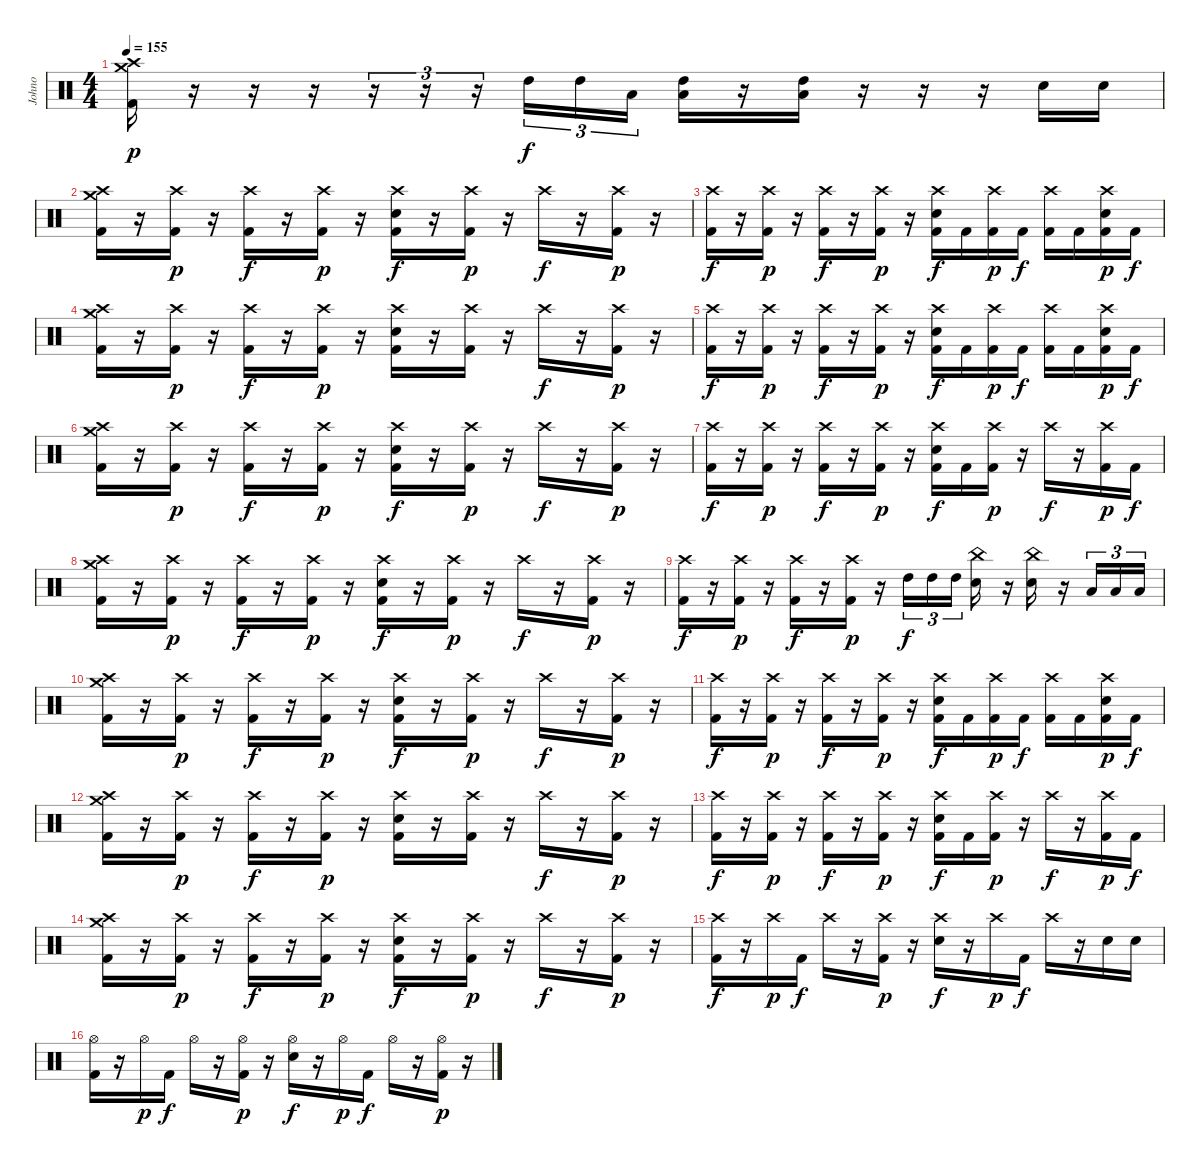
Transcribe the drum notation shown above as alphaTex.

\track ("Johno" "Johno") {instrument percussion}
\staff {score}
\articulation defaults
\ts (4 4)
\tempo 155
\clef neutral
\ks c
("Crash medium (hit)" "Crash high (hit)" "Kick (hit) 2").16{dy p} r.16 r.16 r.16 r.16{tu (3 2)} r.16{tu (3 2)} r.16{tu (3 2)} "High Tom (hit)".16{tu (3 2) dy f} "High Tom (hit)".16{tu (3 2)} "Low Floor Tom (hit)".16{tu (3 2)} ("Low Floor Tom (hit)" "High Tom (hit)").16 r.16 ("Low Floor Tom (hit)" "High Tom (hit)").16 r.16 r.16 r.16 "Electric Snare (hit)".16 "Electric Snare (hit)".16 |
("Crash medium (hit)" "Crash high (hit)" "Kick (hit) 2").16 r.16 ("Crash high (hit)" "Kick (hit) 2").16{dy p} r.16 ("Crash high (hit)" "Kick (hit) 2").16{dy f} r.16 ("Crash high (hit)" "Kick (hit) 2").16{dy p} r.16 ("Crash high (hit)" "Electric Snare (hit)" "Kick (hit) 2").16{dy f} r.16 ("Crash high (hit)" "Kick (hit) 2").16{dy p} r.16 "Crash high (hit)".16{dy f} r.16 ("Crash high (hit)" "Kick (hit) 2").16{dy p} r.16 |
("Crash high (hit)" "Kick (hit) 2").16{dy f} r.16 ("Crash high (hit)" "Kick (hit) 2").16{dy p} r.16 ("Crash high (hit)" "Kick (hit) 2").16{dy f} r.16 ("Crash high (hit)" "Kick (hit) 2").16{dy p} r.16 ("Crash high (hit)" "Electric Snare (hit)" "Kick (hit) 2").16{dy f} "Kick (hit) 2".16 ("Crash high (hit)" "Kick (hit) 2").16{dy p} "Kick (hit) 2".16{dy f} ("Crash high (hit)" "Kick (hit) 2").16 "Kick (hit) 2".16 ("Crash high (hit)" "Electric Snare (hit)" "Kick (hit) 2").16{dy p} "Kick (hit) 2".16{dy f} |
("Crash medium (hit)" "Crash high (hit)" "Kick (hit) 2").16 r.16 ("Crash high (hit)" "Kick (hit) 2").16{dy p} r.16 ("Crash high (hit)" "Kick (hit) 2").16{dy f} r.16 ("Crash high (hit)" "Kick (hit) 2").16{dy p} r.16 ("Crash high (hit)" "Electric Snare (hit)" "Kick (hit) 2").16 r.16 ("Crash high (hit)" "Kick (hit) 2").16 r.16 "Crash high (hit)".16{dy f} r.16 ("Crash high (hit)" "Kick (hit) 2").16{dy p} r.16 |
("Crash high (hit)" "Kick (hit) 2").16{dy f} r.16 ("Crash high (hit)" "Kick (hit) 2").16{dy p} r.16 ("Crash high (hit)" "Kick (hit) 2").16{dy f} r.16 ("Crash high (hit)" "Kick (hit) 2").16{dy p} r.16 ("Crash high (hit)" "Electric Snare (hit)" "Kick (hit) 2").16{dy f} "Kick (hit) 2".16 ("Crash high (hit)" "Kick (hit) 2").16{dy p} "Kick (hit) 2".16{dy f} ("Crash high (hit)" "Kick (hit) 2").16 "Kick (hit) 2".16 ("Crash high (hit)" "Electric Snare (hit)" "Kick (hit) 2").16{dy p} "Kick (hit) 2".16{dy f} |
("Crash medium (hit)" "Crash high (hit)" "Kick (hit) 2").16 r.16 ("Crash high (hit)" "Kick (hit) 2").16{dy p} r.16 ("Crash high (hit)" "Kick (hit) 2").16{dy f} r.16 ("Crash high (hit)" "Kick (hit) 2").16{dy p} r.16 ("Crash high (hit)" "Electric Snare (hit)" "Kick (hit) 2").16{dy f} r.16 ("Crash high (hit)" "Kick (hit) 2").16{dy p} r.16 "Crash high (hit)".16{dy f} r.16 ("Crash high (hit)" "Kick (hit) 2").16{dy p} r.16 |
("Crash high (hit)" "Kick (hit) 2").16{dy f} r.16 ("Crash high (hit)" "Kick (hit) 2").16{dy p} r.16 ("Crash high (hit)" "Kick (hit) 2").16{dy f} r.16 ("Crash high (hit)" "Kick (hit) 2").16{dy p} r.16 ("Crash high (hit)" "Electric Snare (hit)" "Kick (hit) 2").16{dy f} "Kick (hit) 2".16 ("Crash high (hit)" "Kick (hit) 2").16{dy p} r.16 "Crash high (hit)".16{dy f} r.16 ("Crash high (hit)" "Kick (hit) 2").16{dy p} "Kick (hit) 2".16{dy f} |
("Crash medium (hit)" "Crash high (hit)" "Kick (hit) 2").16 r.16 ("Crash high (hit)" "Kick (hit) 2").16{dy p} r.16 ("Crash high (hit)" "Kick (hit) 2").16{dy f} r.16 ("Crash high (hit)" "Kick (hit) 2").16{dy p} r.16 ("Crash high (hit)" "Electric Snare (hit)" "Kick (hit) 2").16{dy f} r.16 ("Crash high (hit)" "Kick (hit) 2").16{dy p} r.16 "Crash high (hit)".16{dy f} r.16 ("Crash high (hit)" "Kick (hit) 2").16{dy p} r.16 |
("Crash high (hit)" "Kick (hit) 2").16{dy f} r.16 ("Crash high (hit)" "Kick (hit) 2").16{dy p} r.16 ("Crash high (hit)" "Kick (hit) 2").16{dy f} r.16 ("Crash high (hit)" "Kick (hit) 2").16{dy p} r.16 "High Tom (hit)".16{tu (3 2) dy f} "High Tom (hit)".16{tu (3 2)} "High Tom (hit)".16{tu (3 2) beam splitsecondary} ("China (hit)" "Electric Snare (hit)").16 r.16 ("China (hit)" "Electric Snare (hit)").16 r.16 "Low Floor Tom (hit)".16{tu (3 2)} "Low Floor Tom (hit)".16{tu (3 2)} "Low Floor Tom (hit)".16{tu (3 2)} |
("Crash medium (hit)" "Crash high (hit)" "Kick (hit) 2").16 r.16 ("Crash high (hit)" "Kick (hit) 2").16{dy p} r.16 ("Crash high (hit)" "Kick (hit) 2").16{dy f} r.16 ("Crash high (hit)" "Kick (hit) 2").16{dy p} r.16 ("Crash high (hit)" "Electric Snare (hit)" "Kick (hit) 2").16{dy f} r.16 ("Crash high (hit)" "Kick (hit) 2").16{dy p} r.16 "Crash high (hit)".16{dy f} r.16 ("Crash high (hit)" "Kick (hit) 2").16{dy p} r.16 |
("Crash high (hit)" "Kick (hit) 2").16{dy f} r.16 ("Crash high (hit)" "Kick (hit) 2").16{dy p} r.16 ("Crash high (hit)" "Kick (hit) 2").16{dy f} r.16 ("Crash high (hit)" "Kick (hit) 2").16{dy p} r.16 ("Crash high (hit)" "Electric Snare (hit)" "Kick (hit) 2").16{dy f} "Kick (hit) 2".16 ("Crash high (hit)" "Kick (hit) 2").16{dy p} "Kick (hit) 2".16{dy f} ("Crash high (hit)" "Kick (hit) 2").16 "Kick (hit) 2".16 ("Crash high (hit)" "Electric Snare (hit)" "Kick (hit) 2").16{dy p} "Kick (hit) 2".16{dy f} |
("Crash medium (hit)" "Crash high (hit)" "Kick (hit) 2").16 r.16 ("Crash high (hit)" "Kick (hit) 2").16{dy p} r.16 ("Crash high (hit)" "Kick (hit) 2").16{dy f} r.16 ("Crash high (hit)" "Kick (hit) 2").16{dy p} r.16 ("Crash high (hit)" "Electric Snare (hit)" "Kick (hit) 2").16 r.16 ("Crash high (hit)" "Kick (hit) 2").16 r.16 "Crash high (hit)".16{dy f} r.16 ("Crash high (hit)" "Kick (hit) 2").16{dy p} r.16 |
("Crash high (hit)" "Kick (hit) 2").16{dy f} r.16 ("Crash high (hit)" "Kick (hit) 2").16{dy p} r.16 ("Crash high (hit)" "Kick (hit) 2").16{dy f} r.16 ("Crash high (hit)" "Kick (hit) 2").16{dy p} r.16 ("Crash high (hit)" "Electric Snare (hit)" "Kick (hit) 2").16{dy f} "Kick (hit) 2".16 ("Crash high (hit)" "Kick (hit) 2").16{dy p} r.16 "Crash high (hit)".16{dy f} r.16 ("Crash high (hit)" "Kick (hit) 2").16{dy p} "Kick (hit) 2".16{dy f} |
("Crash medium (hit)" "Crash high (hit)" "Kick (hit) 2").16 r.16 ("Crash high (hit)" "Kick (hit) 2").16{dy p} r.16 ("Crash high (hit)" "Kick (hit) 2").16{dy f} r.16 ("Crash high (hit)" "Kick (hit) 2").16{dy p} r.16 ("Crash high (hit)" "Electric Snare (hit)" "Kick (hit) 2").16{dy f} r.16 ("Crash high (hit)" "Kick (hit) 2").16{dy p} r.16 "Crash high (hit)".16{dy f} r.16 ("Crash high (hit)" "Kick (hit) 2").16{dy p} r.16 |
("Crash high (hit)" "Kick (hit) 2").16{dy f} r.16 "Crash high (hit)".16{dy p} "Kick (hit) 2".16{dy f} "Crash high (hit)".16 r.16 ("Crash high (hit)" "Kick (hit) 2").16{dy p} r.16 ("Crash high (hit)" "Electric Snare (hit)").16{dy f} r.16 "Crash high (hit)".16{dy p} "Kick (hit) 2".16{dy f} "Crash high (hit)".16 r.16 "Electric Snare (hit)".16 "Electric Snare (hit)".16 |
("Hi-Hat (open)" "Kick (hit) 2").16 r.16 "Hi-Hat (open)".16{dy p} "Kick (hit) 2".16{dy f} "Hi-Hat (open)".16 r.16 ("Hi-Hat (open)" "Kick (hit) 2").16{dy p} r.16 ("Hi-Hat (open)" "Electric Snare (hit)").16{dy f} r.16 "Hi-Hat (open)".16{dy p} "Kick (hit) 2".16{dy f} "Hi-Hat (open)".16 r.16 ("Hi-Hat (open)" "Kick (hit) 2").16{dy p} r.16
